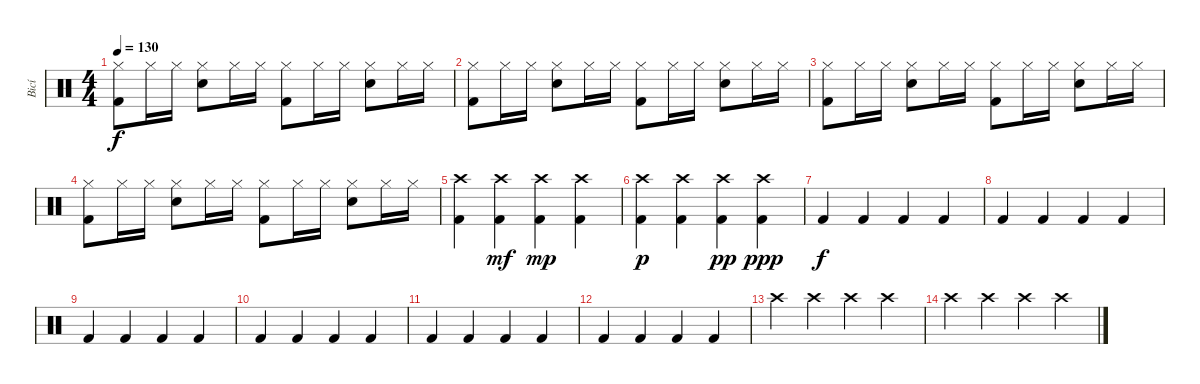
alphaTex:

\track ("Bicí" "Bicí") {instrument percussion}
\staff {score}
\articulation defaults
\ts (4 4)
\tempo 130
\clef neutral
\ks c
("Kick (hit) 2" "Hi-Hat (closed)").8{dy f} "Hi-Hat (closed)".16 "Hi-Hat (closed)".16 ("Hi-Hat (closed)" "Snare (hit) 2").8 "Hi-Hat (closed)".16 "Hi-Hat (closed)".16 ("Kick (hit) 2" "Hi-Hat (closed)").8 "Hi-Hat (closed)".16 "Hi-Hat (closed)".16 ("Hi-Hat (closed)" "Snare (hit) 2").8 "Hi-Hat (closed)".16 "Hi-Hat (closed)".16 |
("Kick (hit) 2" "Hi-Hat (closed)").8 "Hi-Hat (closed)".16 "Hi-Hat (closed)".16 ("Hi-Hat (closed)" "Snare (hit) 2").8 "Hi-Hat (closed)".16 "Hi-Hat (closed)".16 ("Kick (hit) 2" "Hi-Hat (closed)").8 "Hi-Hat (closed)".16 "Hi-Hat (closed)".16 ("Hi-Hat (closed)" "Snare (hit) 2").8 "Hi-Hat (closed)".16 "Hi-Hat (closed)".16 |
("Kick (hit) 2" "Hi-Hat (closed)").8 "Hi-Hat (closed)".16 "Hi-Hat (closed)".16 ("Hi-Hat (closed)" "Snare (hit) 2").8 "Hi-Hat (closed)".16 "Hi-Hat (closed)".16 ("Kick (hit) 2" "Hi-Hat (closed)").8 "Hi-Hat (closed)".16 "Hi-Hat (closed)".16 ("Hi-Hat (closed)" "Snare (hit) 2").8 "Hi-Hat (closed)".16 "Hi-Hat (closed)".16 |
("Kick (hit) 2" "Hi-Hat (closed)").8 "Hi-Hat (closed)".16 "Hi-Hat (closed)".16 ("Hi-Hat (closed)" "Snare (hit) 2").8 "Hi-Hat (closed)".16 "Hi-Hat (closed)".16 ("Kick (hit) 2" "Hi-Hat (closed)").8 "Hi-Hat (closed)".16 "Hi-Hat (closed)".16 ("Hi-Hat (closed)" "Snare (hit) 2").8 "Hi-Hat (closed)".16 "Hi-Hat (closed)".16 |
("Crash high (hit)" "Kick (hit) 2").4 ("Crash high (hit)" "Kick (hit) 2").4{dy mf} ("Crash high (hit)" "Kick (hit) 2").4{dy mp} ("Crash high (hit)" "Kick (hit) 2").4 |
("Crash high (hit)" "Kick (hit) 2").4{dy p} ("Crash high (hit)" "Kick (hit) 2").4 ("Crash high (hit)" "Kick (hit) 2").4{dy pp} ("Crash high (hit)" "Kick (hit) 2").4{dy ppp} |
"Kick (hit) 2".4{dy f} "Kick (hit) 2".4 "Kick (hit) 2".4 "Kick (hit) 2".4 |
"Kick (hit) 2".4 "Kick (hit) 2".4 "Kick (hit) 2".4 "Kick (hit) 2".4 |
"Kick (hit) 2".4 "Kick (hit) 2".4 "Kick (hit) 2".4 "Kick (hit) 2".4 |
"Kick (hit) 2".4 "Kick (hit) 2".4 "Kick (hit) 2".4 "Kick (hit) 2".4 |
"Kick (hit) 2".4 "Kick (hit) 2".4 "Kick (hit) 2".4 "Kick (hit) 2".4 |
"Kick (hit) 2".4 "Kick (hit) 2".4 "Kick (hit) 2".4 "Kick (hit) 2".4 |
"Crash high (hit)".4{volume 0} "Crash high (hit)".4 "Crash high (hit)".4 "Crash high (hit)".4 |
"Crash high (hit)".4 "Crash high (hit)".4 "Crash high (hit)".4 "Crash high (hit)".4
